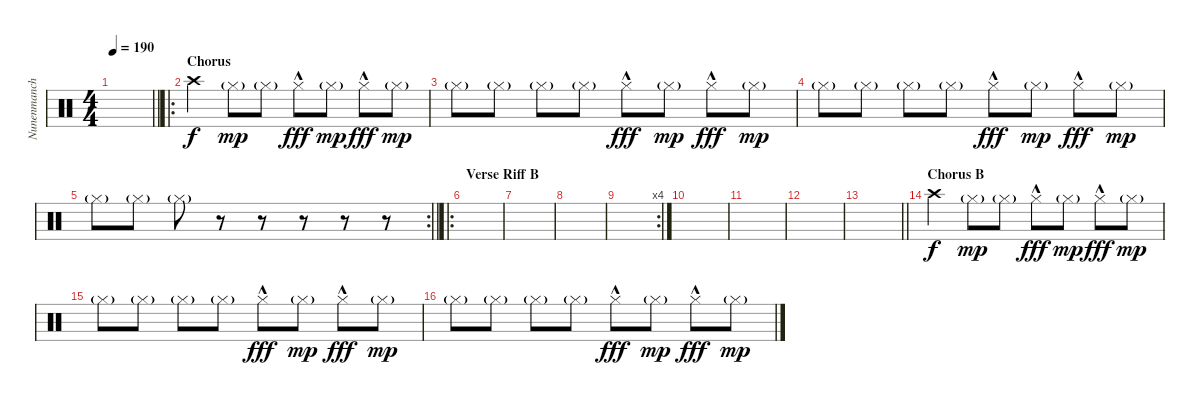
\track ("Nunenmancher" "Nunenmanch") {instrument percussion}
\staff {score}
\articulation defaults
\ts (4 4)
\tempo 190
\clef neutral
\barLineRight lightlight
\ks c
|
\ro
\section ("" "Chorus")
"Crash high (hit)".4{dy f} "Hi-Hat (closed)"{g}.8{dy mp} "Hi-Hat (closed)"{g}.8 "Hi-Hat (closed)"{hac}.8{dy fff} "Hi-Hat (closed)"{g}.8{dy mp} "Hi-Hat (closed)"{hac}.8{dy fff} "Hi-Hat (closed)"{g}.8{dy mp} |
"Hi-Hat (closed)"{g}.8 "Hi-Hat (closed)"{g}.8 "Hi-Hat (closed)"{g}.8 "Hi-Hat (closed)"{g}.8 "Hi-Hat (closed)"{hac}.8{dy fff} "Hi-Hat (closed)"{g}.8{dy mp} "Hi-Hat (closed)"{hac}.8{dy fff} "Hi-Hat (closed)"{g}.8{dy mp} |
"Hi-Hat (closed)"{g}.8 "Hi-Hat (closed)"{g}.8 "Hi-Hat (closed)"{g}.8 "Hi-Hat (closed)"{g}.8 "Hi-Hat (closed)"{hac}.8{dy fff} "Hi-Hat (closed)"{g}.8{dy mp} "Hi-Hat (closed)"{hac}.8{dy fff} "Hi-Hat (closed)"{g}.8{dy mp} |
\rc 2
\barLineRight lightlight "Hi-Hat (closed)"{g}.8 "Hi-Hat (closed)"{g}.8 "Hi-Hat (closed)"{g}.8
r.8 r.8 r.8 r.8 r.8 |
\ro
\section ("" "Verse Riff B")
|
|
|
\rc 4
|
|
|
|
\barLineRight lightlight
|
\section ("" "Chorus B")
"Crash high (hit)".4{dy f} "Hi-Hat (closed)"{g}.8{dy mp} "Hi-Hat (closed)"{g}.8 "Hi-Hat (closed)"{hac}.8{dy fff} "Hi-Hat (closed)"{g}.8{dy mp} "Hi-Hat (closed)"{hac}.8{dy fff} "Hi-Hat (closed)"{g}.8{dy mp} |
"Hi-Hat (closed)"{g}.8 "Hi-Hat (closed)"{g}.8 "Hi-Hat (closed)"{g}.8 "Hi-Hat (closed)"{g}.8 "Hi-Hat (closed)"{hac}.8{dy fff} "Hi-Hat (closed)"{g}.8{dy mp} "Hi-Hat (closed)"{hac}.8{dy fff} "Hi-Hat (closed)"{g}.8{dy mp} |
"Hi-Hat (closed)"{g}.8 "Hi-Hat (closed)"{g}.8 "Hi-Hat (closed)"{g}.8 "Hi-Hat (closed)"{g}.8 "Hi-Hat (closed)"{hac}.8{dy fff} "Hi-Hat (closed)"{g}.8{dy mp} "Hi-Hat (closed)"{hac}.8{dy fff} "Hi-Hat (closed)"{g}.8{dy mp}
